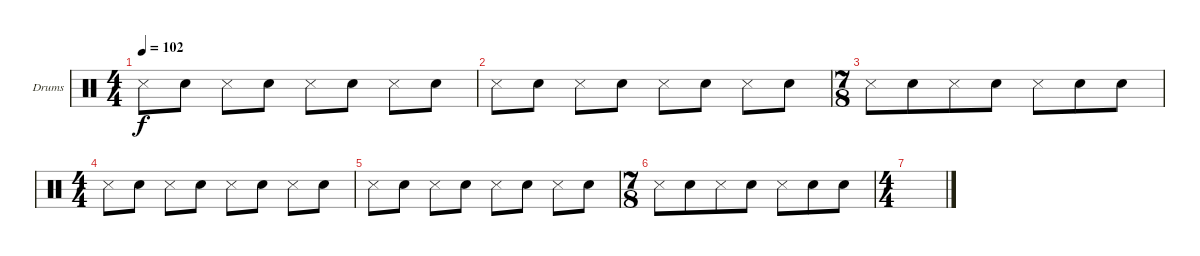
\defaultSystemsLayout 4
\bracketExtendMode groupsimilarinstruments
\firstSystemTrackNameOrientation horizontal
\otherSystemsTrackNameOrientation horizontal
\track ("Drumkit" "Drums") {instrument percussion}
\staff {score}
\articulation defaults
\ts (4 4)
\tempo 102
\clef neutral
\scale
0.390805
\ks c "Snare (side stick) 3".8{dy f} "Snare (hit) 2".8 "Snare (side stick) 3".8 "Snare (hit) 2".8 "Snare (side stick) 3".8 "Snare (hit) 2".8 "Snare (side stick) 3".8 "Snare (hit) 2".8
|
\scale
0.218391 "Snare (side stick) 3".8 "Snare (hit) 2".8 "Snare (side stick) 3".8 "Snare (hit) 2".8 "Snare (side stick) 3".8 "Snare (hit) 2".8 "Snare (side stick) 3".8 "Snare (hit) 2".8 |
\ts (7 8)
\scale
0.390805 "Snare (side stick) 3".8 "Snare (hit) 2".8 "Snare (side stick) 3".8 "Snare (hit) 2".8 "Snare (side stick) 3".8 "Snare (hit) 2".8 "Snare (hit) 2".8 |
\ts (4 4)
"Snare (side stick) 3".8 "Snare (hit) 2".8 "Snare (side stick) 3".8 "Snare (hit) 2".8 "Snare (side stick) 3".8 "Snare (hit) 2".8 "Snare (side stick) 3".8 "Snare (hit) 2".8 |
"Snare (side stick) 3".8 "Snare (hit) 2".8 "Snare (side stick) 3".8 "Snare (hit) 2".8 "Snare (side stick) 3".8 "Snare (hit) 2".8 "Snare (side stick) 3".8 "Snare (hit) 2".8 |
\ts (7 8)
"Snare (side stick) 3".8 "Snare (hit) 2".8 "Snare (side stick) 3".8 "Snare (hit) 2".8 "Snare (side stick) 3".8 "Snare (hit) 2".8 "Snare (hit) 2".8 |
\ts (4 4)
